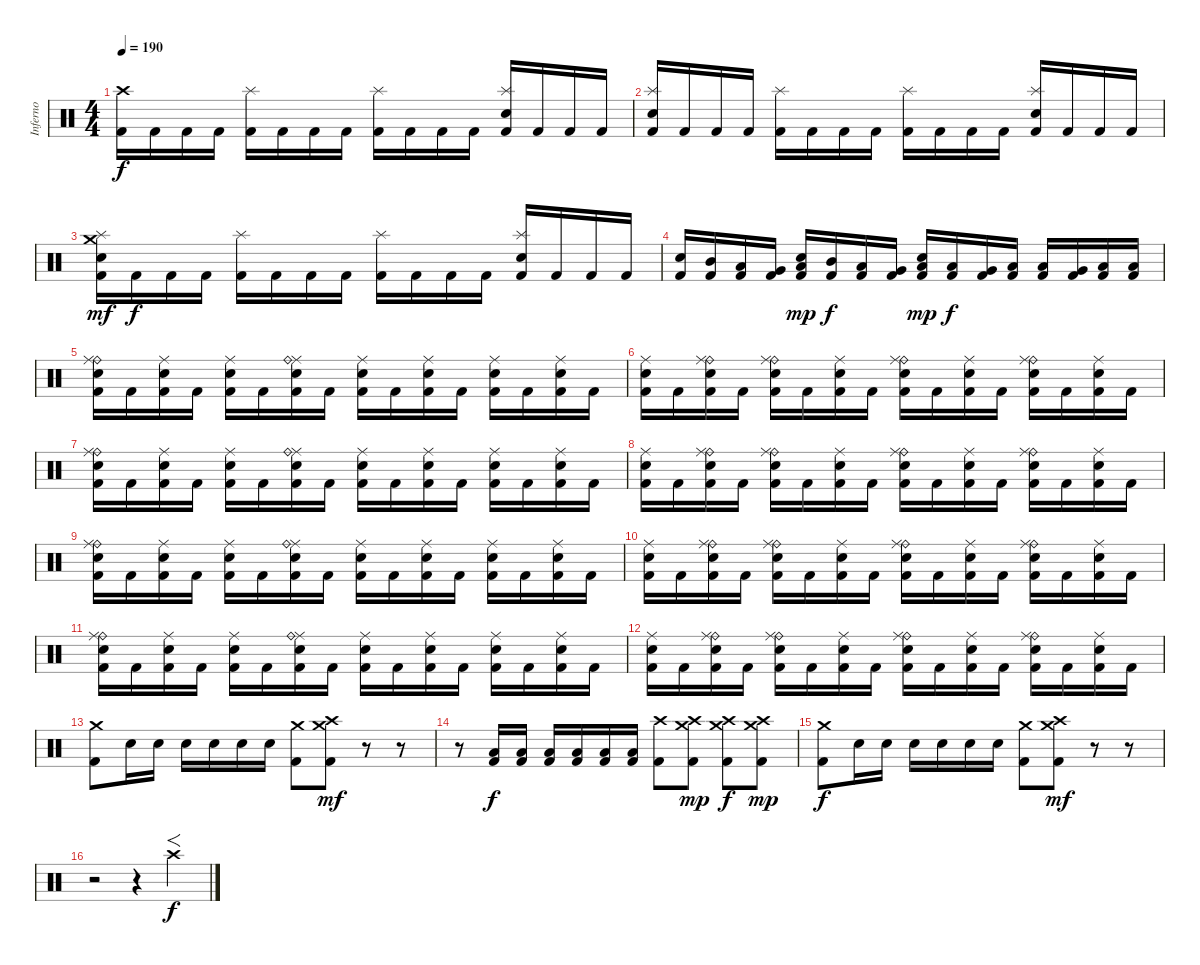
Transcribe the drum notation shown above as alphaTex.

\track ("Inferno" "Inferno") {instrument percussion}
\staff {score}
\articulation defaults
\ts (4 4)
\section ("" "")
\tempo 190
\clef neutral
\ks c
("Crash high (hit)" "Kick (hit) 2").16{dy f} "Kick (hit) 2".16 "Kick (hit) 2".16 "Kick (hit) 2".16 ("Splash (hit)" "Kick (hit) 2").16 "Kick (hit) 2".16 "Kick (hit) 2".16 "Kick (hit) 2".16 ("Splash (hit)" "Kick (hit) 2").16 "Kick (hit) 2".16 "Kick (hit) 2".16 "Kick (hit) 2".16 ("Splash (hit)" "Snare (hit) 2" "Kick (hit) 2").16 "Kick (hit) 2".16 "Kick (hit) 2".16 "Kick (hit) 2".16 |
("Splash (hit)" "Snare (hit) 2" "Kick (hit) 2").16 "Kick (hit) 2".16 "Kick (hit) 2".16 "Kick (hit) 2".16 ("Splash (hit)" "Kick (hit) 2").16 "Kick (hit) 2".16 "Kick (hit) 2".16 "Kick (hit) 2".16 ("Splash (hit)" "Kick (hit) 2").16 "Kick (hit) 2".16 "Kick (hit) 2".16 "Kick (hit) 2".16 ("Splash (hit)" "Snare (hit) 2" "Kick (hit) 2").16 "Kick (hit) 2".16 "Kick (hit) 2".16 "Kick (hit) 2".16 |
("Splash (hit)" "Crash medium (hit)" "Snare (hit) 2" "Kick (hit) 2").16{dy mf} "Kick (hit) 2".16{dy f} "Kick (hit) 2".16 "Kick (hit) 2".16 ("Splash (hit)" "Kick (hit) 2").16 "Kick (hit) 2".16 "Kick (hit) 2".16 "Kick (hit) 2".16 ("Splash (hit)" "Kick (hit) 2").16 "Kick (hit) 2".16 "Kick (hit) 2".16 "Kick (hit) 2".16 ("Splash (hit)" "Snare (hit) 2" "Kick (hit) 2").16 "Kick (hit) 2".16 "Kick (hit) 2".16 "Kick (hit) 2".16 |
("Snare (hit) 2" "Kick (hit) 2").16 ("Mid Tom (hit)" "Kick (hit) 2").16 ("Low Tom (hit)" "Kick (hit) 2").16 ("Very Low Tom (hit)" "Kick (hit) 2").16 ("Low Floor Tom (hit)" "Snare (hit) 2" "Kick (hit) 2").16{dy mp} ("Mid Tom (hit)" "Kick (hit) 2").16{dy f} ("Low Tom (hit)" "Kick (hit) 2").16 ("Very Low Tom (hit)" "Kick (hit) 2").16 ("Low Floor Tom (hit)" "Snare (hit) 2" "Kick (hit) 2").16{dy mp} ("Low Tom (hit)" "Kick (hit) 2").16{dy f} ("Very Low Tom (hit)" "Kick (hit) 2").16 ("Low Floor Tom (hit)" "Kick (hit) 2").16 ("Low Tom (hit)" "Kick (hit) 2").16 ("Very Low Tom (hit)" "Kick (hit) 2").16 ("Low Floor Tom (hit)" "Kick (hit) 2").16 ("Low Floor Tom (hit)" "Kick (hit) 2").16 |
("Ride (bell)" "Ride (middle)" "Snare (hit) 2" "Kick (hit) 2").16 "Kick (hit) 2".16 ("Ride (middle)" "Snare (hit) 2" "Kick (hit) 2").16 "Kick (hit) 2".16 ("Ride (middle)" "Snare (hit) 2" "Kick (hit) 2").16 "Kick (hit) 2".16 ("Ride (middle)" "Ride (bell)" "Snare (hit) 2" "Kick (hit) 2").16 "Kick (hit) 2".16 ("Ride (middle)" "Snare (hit) 2" "Kick (hit) 2").16 "Kick (hit) 2".16 ("Ride (middle)" "Snare (hit) 2" "Kick (hit) 2").16 "Kick (hit) 2".16 ("Ride (middle)" "Snare (hit) 2" "Kick (hit) 2").16 "Kick (hit) 2".16 ("Ride (middle)" "Snare (hit) 2" "Kick (hit) 2").16 "Kick (hit) 2".16 |
("Ride (middle)" "Snare (hit) 2" "Kick (hit) 2").16 "Kick (hit) 2".16 ("Ride (bell)" "Ride (middle)" "Snare (hit) 2" "Kick (hit) 2").16 "Kick (hit) 2".16 ("Ride (bell)" "Ride (middle)" "Snare (hit) 2" "Kick (hit) 2").16 "Kick (hit) 2".16 ("Ride (middle)" "Snare (hit) 2" "Kick (hit) 2").16 "Kick (hit) 2".16 ("Ride (bell)" "Ride (middle)" "Snare (hit) 2" "Kick (hit) 2").16 "Kick (hit) 2".16 ("Ride (middle)" "Snare (hit) 2" "Kick (hit) 2").16 "Kick (hit) 2".16 ("Ride (bell)" "Ride (middle)" "Snare (hit) 2" "Kick (hit) 2").16 "Kick (hit) 2".16 ("Ride (middle)" "Snare (hit) 2" "Kick (hit) 2").16 "Kick (hit) 2".16 |
("Ride (bell)" "Ride (middle)" "Snare (hit) 2" "Kick (hit) 2").16 "Kick (hit) 2".16 ("Ride (middle)" "Snare (hit) 2" "Kick (hit) 2").16 "Kick (hit) 2".16 ("Ride (middle)" "Snare (hit) 2" "Kick (hit) 2").16 "Kick (hit) 2".16 ("Ride (middle)" "Ride (bell)" "Snare (hit) 2" "Kick (hit) 2").16 "Kick (hit) 2".16 ("Ride (middle)" "Snare (hit) 2" "Kick (hit) 2").16 "Kick (hit) 2".16 ("Ride (middle)" "Snare (hit) 2" "Kick (hit) 2").16 "Kick (hit) 2".16 ("Ride (middle)" "Snare (hit) 2" "Kick (hit) 2").16 "Kick (hit) 2".16 ("Ride (middle)" "Snare (hit) 2" "Kick (hit) 2").16 "Kick (hit) 2".16 |
("Ride (middle)" "Snare (hit) 2" "Kick (hit) 2").16 "Kick (hit) 2".16 ("Ride (bell)" "Ride (middle)" "Snare (hit) 2" "Kick (hit) 2").16 "Kick (hit) 2".16 ("Ride (bell)" "Ride (middle)" "Snare (hit) 2" "Kick (hit) 2").16 "Kick (hit) 2".16 ("Ride (middle)" "Snare (hit) 2" "Kick (hit) 2").16 "Kick (hit) 2".16 ("Ride (bell)" "Ride (middle)" "Snare (hit) 2" "Kick (hit) 2").16 "Kick (hit) 2".16 ("Ride (middle)" "Snare (hit) 2" "Kick (hit) 2").16 "Kick (hit) 2".16 ("Ride (bell)" "Ride (middle)" "Snare (hit) 2" "Kick (hit) 2").16 "Kick (hit) 2".16 ("Ride (middle)" "Snare (hit) 2" "Kick (hit) 2").16 "Kick (hit) 2".16 |
("Ride (bell)" "Ride (middle)" "Snare (hit) 2" "Kick (hit) 2").16 "Kick (hit) 2".16 ("Ride (middle)" "Snare (hit) 2" "Kick (hit) 2").16 "Kick (hit) 2".16 ("Ride (middle)" "Snare (hit) 2" "Kick (hit) 2").16 "Kick (hit) 2".16 ("Ride (middle)" "Ride (bell)" "Snare (hit) 2" "Kick (hit) 2").16 "Kick (hit) 2".16 ("Ride (middle)" "Snare (hit) 2" "Kick (hit) 2").16 "Kick (hit) 2".16 ("Ride (middle)" "Snare (hit) 2" "Kick (hit) 2").16 "Kick (hit) 2".16 ("Ride (middle)" "Snare (hit) 2" "Kick (hit) 2").16 "Kick (hit) 2".16 ("Ride (middle)" "Snare (hit) 2" "Kick (hit) 2").16 "Kick (hit) 2".16 |
("Ride (middle)" "Snare (hit) 2" "Kick (hit) 2").16 "Kick (hit) 2".16 ("Ride (bell)" "Ride (middle)" "Snare (hit) 2" "Kick (hit) 2").16 "Kick (hit) 2".16 ("Ride (bell)" "Ride (middle)" "Snare (hit) 2" "Kick (hit) 2").16 "Kick (hit) 2".16 ("Ride (middle)" "Snare (hit) 2" "Kick (hit) 2").16 "Kick (hit) 2".16 ("Ride (bell)" "Ride (middle)" "Snare (hit) 2" "Kick (hit) 2").16 "Kick (hit) 2".16 ("Ride (middle)" "Snare (hit) 2" "Kick (hit) 2").16 "Kick (hit) 2".16 ("Ride (bell)" "Ride (middle)" "Snare (hit) 2" "Kick (hit) 2").16 "Kick (hit) 2".16 ("Ride (middle)" "Snare (hit) 2" "Kick (hit) 2").16 "Kick (hit) 2".16 |
("Ride (bell)" "Ride (middle)" "Snare (hit) 2" "Kick (hit) 2").16 "Kick (hit) 2".16 ("Ride (middle)" "Snare (hit) 2" "Kick (hit) 2").16 "Kick (hit) 2".16 ("Ride (middle)" "Snare (hit) 2" "Kick (hit) 2").16 "Kick (hit) 2".16 ("Ride (middle)" "Ride (bell)" "Snare (hit) 2" "Kick (hit) 2").16 "Kick (hit) 2".16 ("Ride (middle)" "Snare (hit) 2" "Kick (hit) 2").16 "Kick (hit) 2".16 ("Ride (middle)" "Snare (hit) 2" "Kick (hit) 2").16 "Kick (hit) 2".16 ("Ride (middle)" "Snare (hit) 2" "Kick (hit) 2").16 "Kick (hit) 2".16 ("Ride (middle)" "Snare (hit) 2" "Kick (hit) 2").16 "Kick (hit) 2".16 |
("Ride (middle)" "Snare (hit) 2" "Kick (hit) 2").16 "Kick (hit) 2".16 ("Ride (bell)" "Ride (middle)" "Snare (hit) 2" "Kick (hit) 2").16 "Kick (hit) 2".16 ("Ride (bell)" "Ride (middle)" "Snare (hit) 2" "Kick (hit) 2").16 "Kick (hit) 2".16 ("Ride (middle)" "Snare (hit) 2" "Kick (hit) 2").16 "Kick (hit) 2".16 ("Ride (bell)" "Ride (middle)" "Snare (hit) 2" "Kick (hit) 2").16 "Kick (hit) 2".16 ("Ride (middle)" "Snare (hit) 2" "Kick (hit) 2").16 "Kick (hit) 2".16 ("Ride (bell)" "Ride (middle)" "Snare (hit) 2" "Kick (hit) 2").16 "Kick (hit) 2".16 ("Ride (middle)" "Snare (hit) 2" "Kick (hit) 2").16 "Kick (hit) 2".16 |
("Crash medium (hit)" "Kick (hit) 2").8 "Snare (hit) 2".16 "Snare (hit) 2".16 "Snare (hit) 2".16 "Snare (hit) 2".16 "Snare (hit) 2".16 "Snare (hit) 2".16 ("Crash medium (hit)" "Kick (hit) 2").8 ("Crash medium (hit)" "Crash high (hit)" "Kick (hit) 2").8{dy mf} r.8{volume 0} r.8 |
r.8 ("Low Floor Tom (hit)" "Kick (hit) 2").16{dy f volume 13} ("Low Floor Tom (hit)" "Kick (hit) 2").16 ("Low Floor Tom (hit)" "Kick (hit) 2").16 ("Low Floor Tom (hit)" "Kick (hit) 2").16 ("Low Floor Tom (hit)" "Kick (hit) 2").16 ("Low Floor Tom (hit)" "Kick (hit) 2").16 ("Crash high (hit)" "Kick (hit) 2").8 ("Crash high (hit)" "Crash medium (hit)" "Kick (hit) 2").8{dy mp} ("Crash high (hit)" "Crash medium (hit)" "Kick (hit) 2").8{dy f} ("Crash high (hit)" "Crash medium (hit)" "Kick (hit) 2").8{dy mp} |
("Crash medium (hit)" "Kick (hit) 2").8{dy f} "Snare (hit) 2".16 "Snare (hit) 2".16 "Snare (hit) 2".16 "Snare (hit) 2".16 "Snare (hit) 2".16 "Snare (hit) 2".16 ("Crash medium (hit)" "Kick (hit) 2").8 ("Crash medium (hit)" "Crash high (hit)" "Kick (hit) 2").8{dy mf} r.8{volume 0} r.8 |
r.2 r.4 "Crash high (hit)".4{f dy f volume 16}
